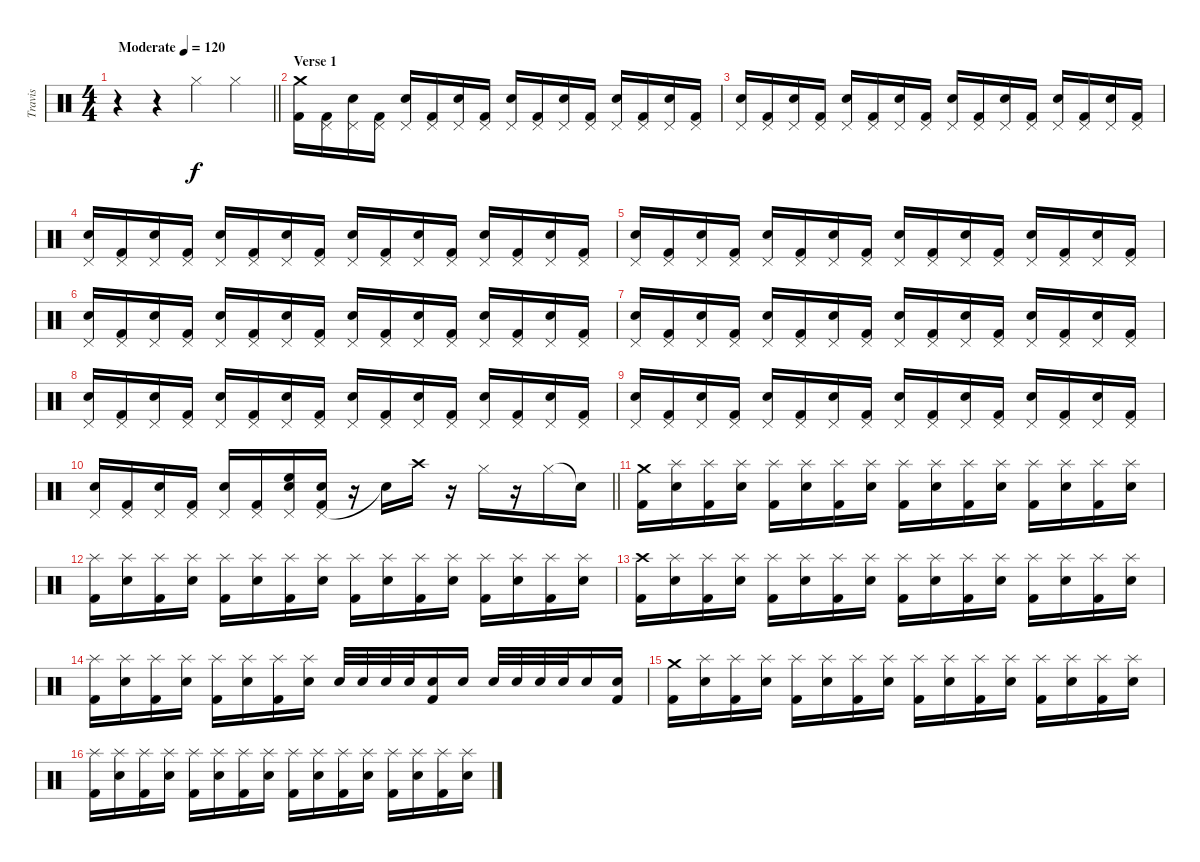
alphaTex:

\track ("Travis" "Travis") {instrument percussion}
\staff {score}
\articulation defaults
\ts (4 4)
\tempo (120 "Moderate")
\clef neutral
\barLineRight lightlight
\ks c
r.4{dy f} r.4 "Hi-Hat (closed)".4 "Hi-Hat (closed)".4 |
\section ("" "Verse 1")
("Crash medium (hit)" "Kick (hit) 2").16 ("Pedal Hi-Hat (hit)" "Kick (hit) 2").16 ("Pedal Hi-Hat (hit)" "Electric Snare (hit)").16 ("Pedal Hi-Hat (hit)" "Kick (hit) 2").16 ("Pedal Hi-Hat (hit)" "Electric Snare (hit)").16 ("Pedal Hi-Hat (hit)" "Kick (hit) 2").16 ("Pedal Hi-Hat (hit)" "Electric Snare (hit)").16 ("Pedal Hi-Hat (hit)" "Kick (hit) 2").16 ("Pedal Hi-Hat (hit)" "Electric Snare (hit)").16 ("Pedal Hi-Hat (hit)" "Kick (hit) 2").16 ("Pedal Hi-Hat (hit)" "Electric Snare (hit)").16 ("Pedal Hi-Hat (hit)" "Kick (hit) 2").16 ("Pedal Hi-Hat (hit)" "Electric Snare (hit)").16 ("Pedal Hi-Hat (hit)" "Kick (hit) 2").16 ("Pedal Hi-Hat (hit)" "Electric Snare (hit)").16 ("Pedal Hi-Hat (hit)" "Kick (hit) 2").16 |
("Pedal Hi-Hat (hit)" "Electric Snare (hit)").16 ("Pedal Hi-Hat (hit)" "Kick (hit) 2").16 ("Pedal Hi-Hat (hit)" "Electric Snare (hit)").16 ("Pedal Hi-Hat (hit)" "Kick (hit) 2").16 ("Pedal Hi-Hat (hit)" "Electric Snare (hit)").16 ("Pedal Hi-Hat (hit)" "Kick (hit) 2").16 ("Pedal Hi-Hat (hit)" "Electric Snare (hit)").16 ("Pedal Hi-Hat (hit)" "Kick (hit) 2").16 ("Pedal Hi-Hat (hit)" "Electric Snare (hit)").16 ("Pedal Hi-Hat (hit)" "Kick (hit) 2").16 ("Pedal Hi-Hat (hit)" "Electric Snare (hit)").16 ("Pedal Hi-Hat (hit)" "Kick (hit) 2").16 ("Pedal Hi-Hat (hit)" "Electric Snare (hit)").16 ("Pedal Hi-Hat (hit)" "Kick (hit) 2").16 ("Pedal Hi-Hat (hit)" "Electric Snare (hit)").16 ("Pedal Hi-Hat (hit)" "Kick (hit) 2").16 |
("Pedal Hi-Hat (hit)" "Electric Snare (hit)").16 ("Pedal Hi-Hat (hit)" "Kick (hit) 2").16 ("Pedal Hi-Hat (hit)" "Electric Snare (hit)").16 ("Pedal Hi-Hat (hit)" "Kick (hit) 2").16 ("Pedal Hi-Hat (hit)" "Electric Snare (hit)").16 ("Pedal Hi-Hat (hit)" "Kick (hit) 2").16 ("Pedal Hi-Hat (hit)" "Electric Snare (hit)").16 ("Pedal Hi-Hat (hit)" "Kick (hit) 2").16 ("Pedal Hi-Hat (hit)" "Electric Snare (hit)").16 ("Pedal Hi-Hat (hit)" "Kick (hit) 2").16 ("Pedal Hi-Hat (hit)" "Electric Snare (hit)").16 ("Pedal Hi-Hat (hit)" "Kick (hit) 2").16 ("Pedal Hi-Hat (hit)" "Electric Snare (hit)").16 ("Pedal Hi-Hat (hit)" "Kick (hit) 2").16 ("Pedal Hi-Hat (hit)" "Electric Snare (hit)").16 ("Pedal Hi-Hat (hit)" "Kick (hit) 2").16 |
("Pedal Hi-Hat (hit)" "Electric Snare (hit)").16 ("Pedal Hi-Hat (hit)" "Kick (hit) 2").16 ("Pedal Hi-Hat (hit)" "Electric Snare (hit)").16 ("Pedal Hi-Hat (hit)" "Kick (hit) 2").16 ("Pedal Hi-Hat (hit)" "Electric Snare (hit)").16 ("Pedal Hi-Hat (hit)" "Kick (hit) 2").16 ("Pedal Hi-Hat (hit)" "Electric Snare (hit)").16 ("Pedal Hi-Hat (hit)" "Kick (hit) 2").16 ("Pedal Hi-Hat (hit)" "Electric Snare (hit)").16 ("Pedal Hi-Hat (hit)" "Kick (hit) 2").16 ("Pedal Hi-Hat (hit)" "Electric Snare (hit)").16 ("Pedal Hi-Hat (hit)" "Kick (hit) 2").16 ("Pedal Hi-Hat (hit)" "Electric Snare (hit)").16 ("Pedal Hi-Hat (hit)" "Kick (hit) 2").16 ("Pedal Hi-Hat (hit)" "Electric Snare (hit)").16 ("Pedal Hi-Hat (hit)" "Kick (hit) 2").16 |
("Pedal Hi-Hat (hit)" "Electric Snare (hit)").16 ("Pedal Hi-Hat (hit)" "Kick (hit) 2").16 ("Pedal Hi-Hat (hit)" "Electric Snare (hit)").16 ("Pedal Hi-Hat (hit)" "Kick (hit) 2").16 ("Pedal Hi-Hat (hit)" "Electric Snare (hit)").16 ("Pedal Hi-Hat (hit)" "Kick (hit) 2").16 ("Pedal Hi-Hat (hit)" "Electric Snare (hit)").16 ("Pedal Hi-Hat (hit)" "Kick (hit) 2").16 ("Pedal Hi-Hat (hit)" "Electric Snare (hit)").16 ("Pedal Hi-Hat (hit)" "Kick (hit) 2").16 ("Pedal Hi-Hat (hit)" "Electric Snare (hit)").16 ("Pedal Hi-Hat (hit)" "Kick (hit) 2").16 ("Pedal Hi-Hat (hit)" "Electric Snare (hit)").16 ("Pedal Hi-Hat (hit)" "Kick (hit) 2").16 ("Pedal Hi-Hat (hit)" "Electric Snare (hit)").16 ("Pedal Hi-Hat (hit)" "Kick (hit) 2").16 |
("Pedal Hi-Hat (hit)" "Electric Snare (hit)").16 ("Pedal Hi-Hat (hit)" "Kick (hit) 2").16 ("Pedal Hi-Hat (hit)" "Electric Snare (hit)").16 ("Pedal Hi-Hat (hit)" "Kick (hit) 2").16 ("Pedal Hi-Hat (hit)" "Electric Snare (hit)").16 ("Pedal Hi-Hat (hit)" "Kick (hit) 2").16 ("Pedal Hi-Hat (hit)" "Electric Snare (hit)").16 ("Pedal Hi-Hat (hit)" "Kick (hit) 2").16 ("Pedal Hi-Hat (hit)" "Electric Snare (hit)").16 ("Pedal Hi-Hat (hit)" "Kick (hit) 2").16 ("Pedal Hi-Hat (hit)" "Electric Snare (hit)").16 ("Pedal Hi-Hat (hit)" "Kick (hit) 2").16 ("Pedal Hi-Hat (hit)" "Electric Snare (hit)").16 ("Pedal Hi-Hat (hit)" "Kick (hit) 2").16 ("Pedal Hi-Hat (hit)" "Electric Snare (hit)").16 ("Pedal Hi-Hat (hit)" "Kick (hit) 2").16 |
("Pedal Hi-Hat (hit)" "Electric Snare (hit)").16 ("Pedal Hi-Hat (hit)" "Kick (hit) 2").16 ("Pedal Hi-Hat (hit)" "Electric Snare (hit)").16 ("Pedal Hi-Hat (hit)" "Kick (hit) 2").16 ("Pedal Hi-Hat (hit)" "Electric Snare (hit)").16 ("Pedal Hi-Hat (hit)" "Kick (hit) 2").16 ("Pedal Hi-Hat (hit)" "Electric Snare (hit)").16 ("Pedal Hi-Hat (hit)" "Kick (hit) 2").16 ("Pedal Hi-Hat (hit)" "Electric Snare (hit)").16 ("Pedal Hi-Hat (hit)" "Kick (hit) 2").16 ("Pedal Hi-Hat (hit)" "Electric Snare (hit)").16 ("Pedal Hi-Hat (hit)" "Kick (hit) 2").16 ("Pedal Hi-Hat (hit)" "Electric Snare (hit)").16 ("Pedal Hi-Hat (hit)" "Kick (hit) 2").16 ("Pedal Hi-Hat (hit)" "Electric Snare (hit)").16 ("Pedal Hi-Hat (hit)" "Kick (hit) 2").16 |
("Pedal Hi-Hat (hit)" "Electric Snare (hit)").16 ("Pedal Hi-Hat (hit)" "Kick (hit) 2").16 ("Pedal Hi-Hat (hit)" "Electric Snare (hit)").16 ("Pedal Hi-Hat (hit)" "Kick (hit) 2").16 ("Pedal Hi-Hat (hit)" "Electric Snare (hit)").16 ("Pedal Hi-Hat (hit)" "Kick (hit) 2").16 ("Pedal Hi-Hat (hit)" "Electric Snare (hit)").16 ("Pedal Hi-Hat (hit)" "Kick (hit) 2").16 ("Pedal Hi-Hat (hit)" "Electric Snare (hit)").16 ("Pedal Hi-Hat (hit)" "Kick (hit) 2").16 ("Pedal Hi-Hat (hit)" "Electric Snare (hit)").16 ("Pedal Hi-Hat (hit)" "Kick (hit) 2").16 ("Pedal Hi-Hat (hit)" "Electric Snare (hit)").16 ("Pedal Hi-Hat (hit)" "Kick (hit) 2").16 ("Pedal Hi-Hat (hit)" "Electric Snare (hit)").16 ("Pedal Hi-Hat (hit)" "Kick (hit) 2").16 |
\barLineRight lightlight
("Pedal Hi-Hat (hit)" "Electric Snare (hit)").16 ("Pedal Hi-Hat (hit)" "Kick (hit) 2").16 ("Pedal Hi-Hat (hit)" "Electric Snare (hit)").16 ("Pedal Hi-Hat (hit)" "Kick (hit) 2").16 ("Pedal Hi-Hat (hit)" "Electric Snare (hit)").16 ("Pedal Hi-Hat (hit)" "Kick (hit) 2").16 ("Pedal Hi-Hat (hit)" "High Floor Tom (hit)" "Electric Snare (hit)").16 ("Pedal Hi-Hat (hit)" "Electric Snare (hit)" "Kick (hit) 2").16 r.16 "Snare (hit)"{t}.16 "Crash high (hit)".16 r.16 "Hi-Hat (closed)".16 r.16 "Hi-Hat (closed)".16 "Snare (hit)"{t}.16 |
("Crash medium (hit)" "Kick (hit) 2").16 ("Splash (hit)" "Electric Snare (hit)").16 ("Splash (hit)" "Kick (hit) 2").16 ("Splash (hit)" "Electric Snare (hit)").16 ("Splash (hit)" "Kick (hit) 2").16 ("Splash (hit)" "Electric Snare (hit)").16 ("Splash (hit)" "Kick (hit) 2").16 ("Splash (hit)" "Electric Snare (hit)").16 ("Splash (hit)" "Kick (hit) 2").16 ("Splash (hit)" "Electric Snare (hit)").16 ("Splash (hit)" "Kick (hit) 2").16 ("Splash (hit)" "Electric Snare (hit)").16 ("Splash (hit)" "Kick (hit) 2").16 ("Splash (hit)" "Electric Snare (hit)").16 ("Splash (hit)" "Kick (hit) 2").16 ("Splash (hit)" "Electric Snare (hit)").16 |
("Splash (hit)" "Kick (hit) 2").16 ("Splash (hit)" "Electric Snare (hit)").16 ("Splash (hit)" "Kick (hit) 2").16 ("Splash (hit)" "Electric Snare (hit)").16 ("Splash (hit)" "Kick (hit) 2").16 ("Splash (hit)" "Electric Snare (hit)").16 ("Splash (hit)" "Kick (hit) 2").16 ("Splash (hit)" "Electric Snare (hit)").16 ("Splash (hit)" "Kick (hit) 2").16 ("Splash (hit)" "Electric Snare (hit)").16 ("Splash (hit)" "Kick (hit) 2").16 ("Splash (hit)" "Electric Snare (hit)").16 ("Splash (hit)" "Kick (hit) 2").16 ("Splash (hit)" "Electric Snare (hit)").16 ("Splash (hit)" "Kick (hit) 2").16 ("Splash (hit)" "Electric Snare (hit)").16 |
("Crash high (hit)" "Kick (hit) 2").16 ("Splash (hit)" "Electric Snare (hit)").16 ("Splash (hit)" "Kick (hit) 2").16 ("Splash (hit)" "Electric Snare (hit)").16 ("Splash (hit)" "Kick (hit) 2").16 ("Splash (hit)" "Electric Snare (hit)").16 ("Splash (hit)" "Kick (hit) 2").16 ("Splash (hit)" "Electric Snare (hit)").16 ("Splash (hit)" "Kick (hit) 2").16 ("Splash (hit)" "Electric Snare (hit)").16 ("Splash (hit)" "Kick (hit) 2").16 ("Splash (hit)" "Electric Snare (hit)").16 ("Splash (hit)" "Kick (hit) 2").16 ("Splash (hit)" "Electric Snare (hit)").16 ("Splash (hit)" "Kick (hit) 2").16 ("Splash (hit)" "Electric Snare (hit)").16 |
("Splash (hit)" "Kick (hit) 2").16 ("Splash (hit)" "Electric Snare (hit)").16 ("Splash (hit)" "Kick (hit) 2").16 ("Splash (hit)" "Electric Snare (hit)").16 ("Splash (hit)" "Kick (hit) 2").16 ("Splash (hit)" "Electric Snare (hit)").16 ("Splash (hit)" "Kick (hit) 2").16 ("Splash (hit)" "Electric Snare (hit)").16 "Electric Snare (hit)".32 "Electric Snare (hit)".32 "Electric Snare (hit)".32 "Electric Snare (hit)".32 ("Electric Snare (hit)" "Kick (hit) 2").16 "Electric Snare (hit)".16 "Electric Snare (hit)".32 "Electric Snare (hit)".32 "Electric Snare (hit)".32 "Electric Snare (hit)".32 "Electric Snare (hit)".16 ("Electric Snare (hit)" "Kick (hit) 2").16 |
("Crash medium (hit)" "Kick (hit) 2").16 ("Splash (hit)" "Electric Snare (hit)").16 ("Splash (hit)" "Kick (hit) 2").16 ("Splash (hit)" "Electric Snare (hit)").16 ("Splash (hit)" "Kick (hit) 2").16 ("Splash (hit)" "Electric Snare (hit)").16 ("Splash (hit)" "Kick (hit) 2").16 ("Splash (hit)" "Electric Snare (hit)").16 ("Splash (hit)" "Kick (hit) 2").16 ("Splash (hit)" "Electric Snare (hit)").16 ("Splash (hit)" "Kick (hit) 2").16 ("Splash (hit)" "Electric Snare (hit)").16 ("Splash (hit)" "Kick (hit) 2").16 ("Splash (hit)" "Electric Snare (hit)").16 ("Splash (hit)" "Kick (hit) 2").16 ("Splash (hit)" "Electric Snare (hit)").16 |
("Splash (hit)" "Kick (hit) 2").16 ("Splash (hit)" "Electric Snare (hit)").16 ("Splash (hit)" "Kick (hit) 2").16 ("Splash (hit)" "Electric Snare (hit)").16 ("Splash (hit)" "Kick (hit) 2").16 ("Splash (hit)" "Electric Snare (hit)").16 ("Splash (hit)" "Kick (hit) 2").16 ("Splash (hit)" "Electric Snare (hit)").16 ("Splash (hit)" "Kick (hit) 2").16 ("Splash (hit)" "Electric Snare (hit)").16 ("Splash (hit)" "Kick (hit) 2").16 ("Splash (hit)" "Electric Snare (hit)").16 ("Splash (hit)" "Kick (hit) 2").16 ("Splash (hit)" "Electric Snare (hit)").16 ("Splash (hit)" "Kick (hit) 2").16 ("Splash (hit)" "Electric Snare (hit)").16
